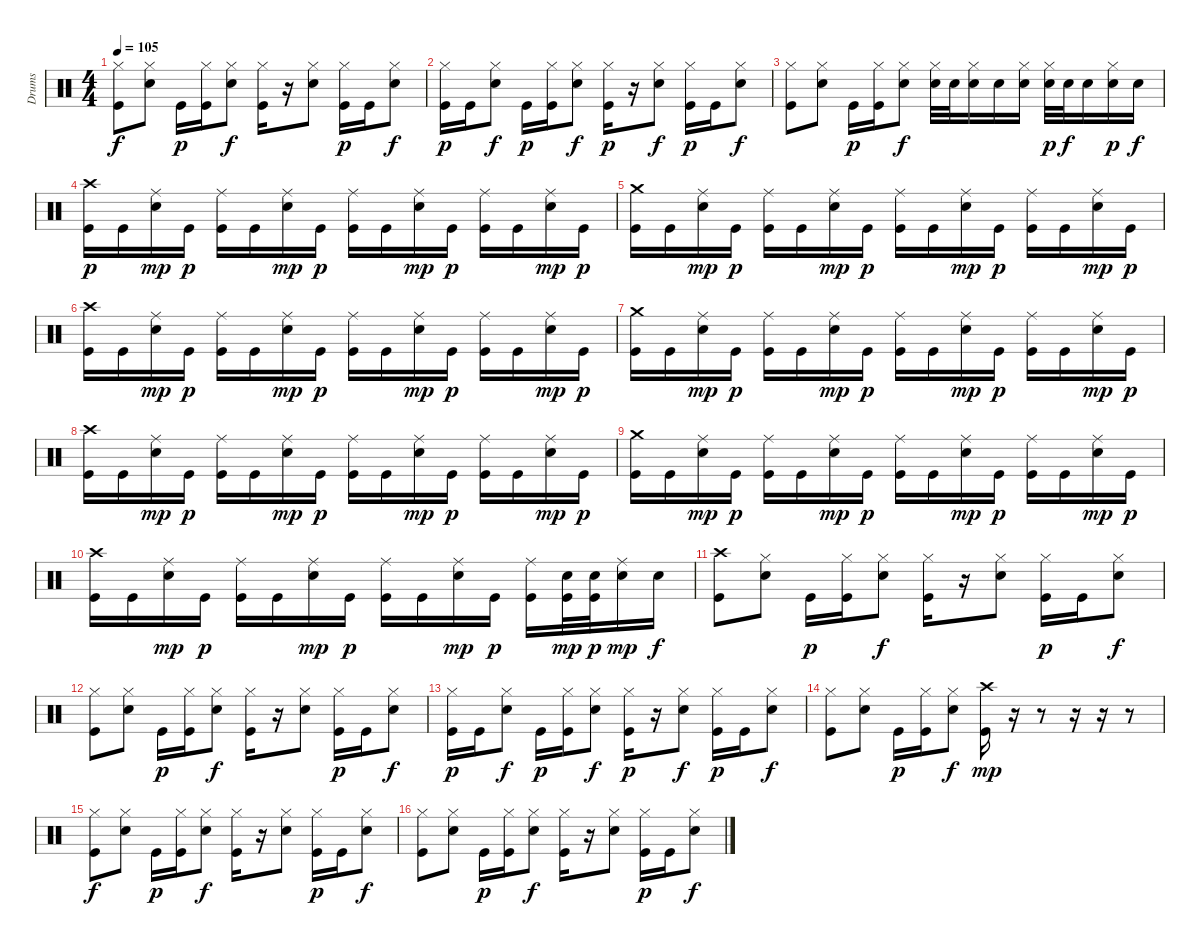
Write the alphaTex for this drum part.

\track ("Drums" "Drums") {instrument percussion}
\staff {score}
\articulation defaults
\ts (4 4)
\tempo 105
\clef neutral
\ks c
("Hi-Hat (closed)" "Kick (hit)").8{dy f} ("Hi-Hat (closed)" "Snare (hit) 2").8 "Kick (hit)".16{dy p} ("Hi-Hat (closed)" "Kick (hit)").16 ("Hi-Hat (closed)" "Snare (hit) 2").8{dy f} ("Hi-Hat (closed)" "Kick (hit)").16 r.16 ("Hi-Hat (closed)" "Snare (hit) 2").8 ("Hi-Hat (closed)" "Kick (hit)").16{dy p} "Kick (hit)".16 ("Hi-Hat (closed)" "Snare (hit) 2").8{dy f} |
("Hi-Hat (closed)" "Kick (hit)").16{dy p} "Kick (hit)".16 ("Hi-Hat (closed)" "Snare (hit) 2").8{dy f} "Kick (hit)".16{dy p} ("Hi-Hat (closed)" "Kick (hit)").16 ("Hi-Hat (closed)" "Snare (hit) 2").8{dy f} ("Hi-Hat (closed)" "Kick (hit)").16{dy p} r.16 ("Hi-Hat (closed)" "Snare (hit) 2").8{dy f} ("Hi-Hat (closed)" "Kick (hit)").16{dy p} "Kick (hit)".16 ("Hi-Hat (closed)" "Snare (hit) 2").8{dy f} |
("Hi-Hat (closed)" "Kick (hit)").8 ("Hi-Hat (closed)" "Snare (hit) 2").8 "Kick (hit)".16{dy p} ("Hi-Hat (closed)" "Kick (hit)").16 ("Hi-Hat (closed)" "Snare (hit) 2").8{dy f} ("Hi-Hat (closed)" "Snare (hit) 2").32 "Snare (hit) 2".32 ("Hi-Hat (closed)" "Snare (hit) 2").16 "Snare (hit) 2".16 ("Hi-Hat (closed)" "Snare (hit) 2").16 ("Hi-Hat (closed)" "Snare (hit) 2").32{dy p} "Snare (hit) 2".32{dy f} "Snare (hit) 2".16 ("Hi-Hat (closed)" "Snare (hit) 2").16{dy p} "Snare (hit) 2".16{dy f} |
("Crash high (hit)" "Kick (hit)").16{dy p} "Kick (hit)".16 ("Ride (middle)" "Snare (hit) 2").16{dy mp} "Kick (hit)".16{dy p} ("Ride (middle)" "Kick (hit)").16 "Kick (hit)".16 ("Ride (middle)" "Snare (hit) 2").16{dy mp} "Kick (hit)".16{dy p} ("Ride (middle)" "Kick (hit)").16 "Kick (hit)".16 ("Ride (middle)" "Snare (hit) 2").16{dy mp} "Kick (hit)".16{dy p} ("Ride (middle)" "Kick (hit)").16 "Kick (hit)".16 ("Ride (middle)" "Snare (hit) 2").16{dy mp} "Kick (hit)".16{dy p} |
("Crash medium (hit)" "Kick (hit)").16 "Kick (hit)".16 ("Ride (middle)" "Snare (hit) 2").16{dy mp} "Kick (hit)".16{dy p} ("Ride (middle)" "Kick (hit)").16 "Kick (hit)".16 ("Ride (middle)" "Snare (hit) 2").16{dy mp} "Kick (hit)".16{dy p} ("Ride (middle)" "Kick (hit)").16 "Kick (hit)".16 ("Ride (middle)" "Snare (hit) 2").16{dy mp} "Kick (hit)".16{dy p} ("Ride (middle)" "Kick (hit)").16 "Kick (hit)".16 ("Ride (middle)" "Snare (hit) 2").16{dy mp} "Kick (hit)".16{dy p} |
("Crash high (hit)" "Kick (hit)").16 "Kick (hit)".16 ("Ride (middle)" "Snare (hit) 2").16{dy mp} "Kick (hit)".16{dy p} ("Ride (middle)" "Kick (hit)").16 "Kick (hit)".16 ("Ride (middle)" "Snare (hit) 2").16{dy mp} "Kick (hit)".16{dy p} ("Ride (middle)" "Kick (hit)").16 "Kick (hit)".16 ("Ride (middle)" "Snare (hit) 2").16{dy mp} "Kick (hit)".16{dy p} ("Ride (middle)" "Kick (hit)").16 "Kick (hit)".16 ("Ride (middle)" "Snare (hit) 2").16{dy mp} "Kick (hit)".16{dy p} |
("Crash medium (hit)" "Kick (hit)").16 "Kick (hit)".16 ("Ride (middle)" "Snare (hit) 2").16{dy mp} "Kick (hit)".16{dy p} ("Ride (middle)" "Kick (hit)").16 "Kick (hit)".16 ("Ride (middle)" "Snare (hit) 2").16{dy mp} "Kick (hit)".16{dy p} ("Ride (middle)" "Kick (hit)").16 "Kick (hit)".16 ("Ride (middle)" "Snare (hit) 2").16{dy mp} "Kick (hit)".16{dy p} ("Ride (middle)" "Kick (hit)").16 "Kick (hit)".16 ("Ride (middle)" "Snare (hit) 2").16{dy mp} "Kick (hit)".16{dy p} |
("Crash high (hit)" "Kick (hit)").16 "Kick (hit)".16 ("Ride (middle)" "Snare (hit) 2").16{dy mp} "Kick (hit)".16{dy p} ("Ride (middle)" "Kick (hit)").16 "Kick (hit)".16 ("Ride (middle)" "Snare (hit) 2").16{dy mp} "Kick (hit)".16{dy p} ("Ride (middle)" "Kick (hit)").16 "Kick (hit)".16 ("Ride (middle)" "Snare (hit) 2").16{dy mp} "Kick (hit)".16{dy p} ("Ride (middle)" "Kick (hit)").16 "Kick (hit)".16 ("Ride (middle)" "Snare (hit) 2").16{dy mp} "Kick (hit)".16{dy p} |
("Crash medium (hit)" "Kick (hit)").16 "Kick (hit)".16 ("Ride (middle)" "Snare (hit) 2").16{dy mp} "Kick (hit)".16{dy p} ("Ride (middle)" "Kick (hit)").16 "Kick (hit)".16 ("Ride (middle)" "Snare (hit) 2").16{dy mp} "Kick (hit)".16{dy p} ("Ride (middle)" "Kick (hit)").16 "Kick (hit)".16 ("Ride (middle)" "Snare (hit) 2").16{dy mp} "Kick (hit)".16{dy p} ("Ride (middle)" "Kick (hit)").16 "Kick (hit)".16 ("Ride (middle)" "Snare (hit) 2").16{dy mp} "Kick (hit)".16{dy p} |
("Crash high (hit)" "Kick (hit)").16 "Kick (hit)".16 ("Ride (middle)" "Snare (hit) 2").16{dy mp} "Kick (hit)".16{dy p} ("Ride (middle)" "Kick (hit)").16 "Kick (hit)".16 ("Ride (middle)" "Snare (hit) 2").16{dy mp} "Kick (hit)".16{dy p} ("Ride (middle)" "Kick (hit)").16 "Kick (hit)".16 ("Ride (middle)" "Snare (hit) 2").16{dy mp} "Kick (hit)".16{dy p} ("Ride (middle)" "Kick (hit)").16 ("Snare (hit) 2" "Kick (hit)").32{dy mp} ("Snare (hit) 2" "Kick (hit)").32{dy p} ("Ride (middle)" "Snare (hit) 2").16{dy mp} "Snare (hit) 2".16{dy f} |
("Crash high (hit)" "Kick (hit)").8 ("Hi-Hat (closed)" "Snare (hit) 2").8 "Kick (hit)".16{dy p} ("Hi-Hat (closed)" "Kick (hit)").16 ("Hi-Hat (closed)" "Snare (hit) 2").8{dy f} ("Hi-Hat (closed)" "Kick (hit)").16 r.16 ("Hi-Hat (closed)" "Snare (hit) 2").8 ("Hi-Hat (closed)" "Kick (hit)").16{dy p} "Kick (hit)".16 ("Hi-Hat (closed)" "Snare (hit) 2").8{dy f} |
("Hi-Hat (closed)" "Kick (hit)").8 ("Hi-Hat (closed)" "Snare (hit) 2").8 "Kick (hit)".16{dy p} ("Hi-Hat (closed)" "Kick (hit)").16 ("Hi-Hat (closed)" "Snare (hit) 2").8{dy f} ("Hi-Hat (closed)" "Kick (hit)").16 r.16 ("Hi-Hat (closed)" "Snare (hit) 2").8 ("Hi-Hat (closed)" "Kick (hit)").16{dy p} "Kick (hit)".16 ("Hi-Hat (closed)" "Snare (hit) 2").8{dy f} |
("Hi-Hat (closed)" "Kick (hit)").16{dy p} "Kick (hit)".16 ("Hi-Hat (closed)" "Snare (hit) 2").8{dy f} "Kick (hit)".16{dy p} ("Hi-Hat (closed)" "Kick (hit)").16 ("Hi-Hat (closed)" "Snare (hit) 2").8{dy f} ("Hi-Hat (closed)" "Kick (hit)").16{dy p} r.16 ("Hi-Hat (closed)" "Snare (hit) 2").8{dy f} ("Hi-Hat (closed)" "Kick (hit)").16{dy p} "Kick (hit)".16 ("Hi-Hat (closed)" "Snare (hit) 2").8{dy f} |
("Hi-Hat (closed)" "Kick (hit)").8 ("Hi-Hat (closed)" "Snare (hit) 2").8 "Kick (hit)".16{dy p} ("Hi-Hat (closed)" "Kick (hit)").16 ("Hi-Hat (closed)" "Snare (hit) 2").8{dy f} ("Crash high (hit)" "Kick (hit)").16{dy mp} r.16 r.8 r.16 r.16 r.8 |
("Hi-Hat (closed)" "Kick (hit)").8{dy f} ("Hi-Hat (closed)" "Snare (hit) 2").8 "Kick (hit)".16{dy p} ("Hi-Hat (closed)" "Kick (hit)").16 ("Hi-Hat (closed)" "Snare (hit) 2").8{dy f} ("Hi-Hat (closed)" "Kick (hit)").16 r.16 ("Hi-Hat (closed)" "Snare (hit) 2").8 ("Hi-Hat (closed)" "Kick (hit)").16{dy p} "Kick (hit)".16 ("Hi-Hat (closed)" "Snare (hit) 2").8{dy f} |
("Hi-Hat (closed)" "Kick (hit)").8 ("Hi-Hat (closed)" "Snare (hit) 2").8 "Kick (hit)".16{dy p} ("Hi-Hat (closed)" "Kick (hit)").16 ("Hi-Hat (closed)" "Snare (hit) 2").8{dy f} ("Hi-Hat (closed)" "Kick (hit)").16 r.16 ("Hi-Hat (closed)" "Snare (hit) 2").8 ("Hi-Hat (closed)" "Kick (hit)").16{dy p} "Kick (hit)".16 ("Hi-Hat (closed)" "Snare (hit) 2").8{dy f}
